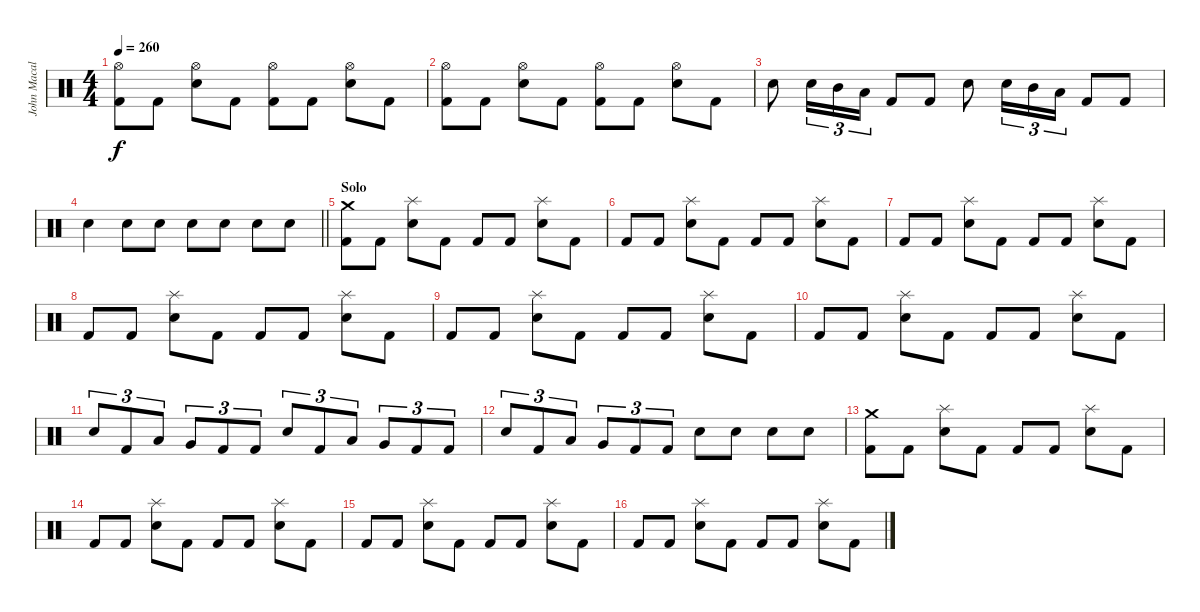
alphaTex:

\track ("John Macaluso" "John Macal") {instrument percussion}
\staff {score}
\articulation defaults
\ts (4 4)
\tempo 260
\clef neutral
\ks c
("Hi-Hat (open)" "Kick (hit) 2").8{dy f} "Kick (hit) 2".8 ("Hi-Hat (open)" "Snare (hit) 2").8 "Kick (hit) 2".8 ("Hi-Hat (open)" "Kick (hit) 2").8 "Kick (hit) 2".8 ("Hi-Hat (open)" "Snare (hit) 2").8 "Kick (hit) 2".8 |
("Hi-Hat (open)" "Kick (hit) 2").8 "Kick (hit) 2".8 ("Hi-Hat (open)" "Snare (hit) 2").8 "Kick (hit) 2".8 ("Hi-Hat (open)" "Kick (hit) 2").8 "Kick (hit) 2".8 ("Hi-Hat (open)" "Snare (hit) 2").8 "Kick (hit) 2".8 |
"Snare (hit) 2".8 "Snare (hit) 2".16{tu (3 2)} "Mid Tom (hit)".16{tu (3 2)} "Low Tom (hit)".16{tu (3 2)} "Kick (hit) 2".8 "Kick (hit) 2".8 "Snare (hit) 2".8 "Snare (hit) 2".16{tu (3 2)} "Mid Tom (hit)".16{tu (3 2)} "Low Tom (hit)".16{tu (3 2)} "Kick (hit) 2".8 "Kick (hit) 2".8 |
\barLineRight lightlight "Snare (hit) 2".4 "Snare (hit) 2".8 "Snare (hit) 2".8 "Snare (hit) 2".8 "Snare (hit) 2".8 "Snare (hit) 2".8 "Snare (hit) 2".8
|
\section ("" "Solo")
("Crash medium (hit)" "Kick (hit) 2").8 "Kick (hit) 2".8 ("Splash (hit)" "Snare (hit) 2").8 "Kick (hit) 2".8 "Kick (hit) 2".8 "Kick (hit) 2".8 ("Splash (hit)" "Snare (hit) 2").8 "Kick (hit) 2".8 |
"Kick (hit) 2".8 "Kick (hit) 2".8 ("Splash (hit)" "Snare (hit) 2").8 "Kick (hit) 2".8 "Kick (hit) 2".8 "Kick (hit) 2".8 ("Splash (hit)" "Snare (hit) 2").8 "Kick (hit) 2".8 |
"Kick (hit) 2".8 "Kick (hit) 2".8 ("Splash (hit)" "Snare (hit) 2").8 "Kick (hit) 2".8 "Kick (hit) 2".8 "Kick (hit) 2".8 ("Splash (hit)" "Snare (hit) 2").8 "Kick (hit) 2".8 |
"Kick (hit) 2".8 "Kick (hit) 2".8 ("Splash (hit)" "Snare (hit) 2").8 "Kick (hit) 2".8 "Kick (hit) 2".8 "Kick (hit) 2".8 ("Splash (hit)" "Snare (hit) 2").8 "Kick (hit) 2".8 |
"Kick (hit) 2".8 "Kick (hit) 2".8 ("Splash (hit)" "Snare (hit) 2").8 "Kick (hit) 2".8 "Kick (hit) 2".8 "Kick (hit) 2".8 ("Splash (hit)" "Snare (hit) 2").8 "Kick (hit) 2".8 |
"Kick (hit) 2".8 "Kick (hit) 2".8 ("Splash (hit)" "Snare (hit) 2").8 "Kick (hit) 2".8 "Kick (hit) 2".8 "Kick (hit) 2".8 ("Splash (hit)" "Snare (hit) 2").8 "Kick (hit) 2".8 |
"Snare (hit) 2".8{tu (3 2)} "Kick (hit) 2".8{tu (3 2)} "Low Tom (hit)".8{tu (3 2)} "Very Low Tom (hit)".8{tu (3 2)} "Kick (hit) 2".8{tu (3 2)} "Kick (hit) 2".8{tu (3 2)} "Snare (hit) 2".8{tu (3 2)} "Kick (hit) 2".8{tu (3 2)} "Low Tom (hit)".8{tu (3 2)} "Very Low Tom (hit)".8{tu (3 2)} "Kick (hit) 2".8{tu (3 2)} "Kick (hit) 2".8{tu (3 2)} |
"Snare (hit) 2".8{tu (3 2)} "Kick (hit) 2".8{tu (3 2)} "Low Tom (hit)".8{tu (3 2)} "Very Low Tom (hit)".8{tu (3 2)} "Kick (hit) 2".8{tu (3 2)} "Kick (hit) 2".8{tu (3 2)} "Snare (hit) 2".8 "Snare (hit) 2".8 "Snare (hit) 2".8 "Snare (hit) 2".8 |
("Crash medium (hit)" "Kick (hit) 2").8 "Kick (hit) 2".8 ("Splash (hit)" "Snare (hit) 2").8 "Kick (hit) 2".8 "Kick (hit) 2".8 "Kick (hit) 2".8 ("Splash (hit)" "Snare (hit) 2").8 "Kick (hit) 2".8 |
"Kick (hit) 2".8 "Kick (hit) 2".8 ("Splash (hit)" "Snare (hit) 2").8 "Kick (hit) 2".8 "Kick (hit) 2".8 "Kick (hit) 2".8 ("Splash (hit)" "Snare (hit) 2").8 "Kick (hit) 2".8 |
"Kick (hit) 2".8 "Kick (hit) 2".8 ("Splash (hit)" "Snare (hit) 2").8 "Kick (hit) 2".8 "Kick (hit) 2".8 "Kick (hit) 2".8 ("Splash (hit)" "Snare (hit) 2").8 "Kick (hit) 2".8 |
"Kick (hit) 2".8 "Kick (hit) 2".8 ("Splash (hit)" "Snare (hit) 2").8 "Kick (hit) 2".8 "Kick (hit) 2".8 "Kick (hit) 2".8 ("Splash (hit)" "Snare (hit) 2").8 "Kick (hit) 2".8
